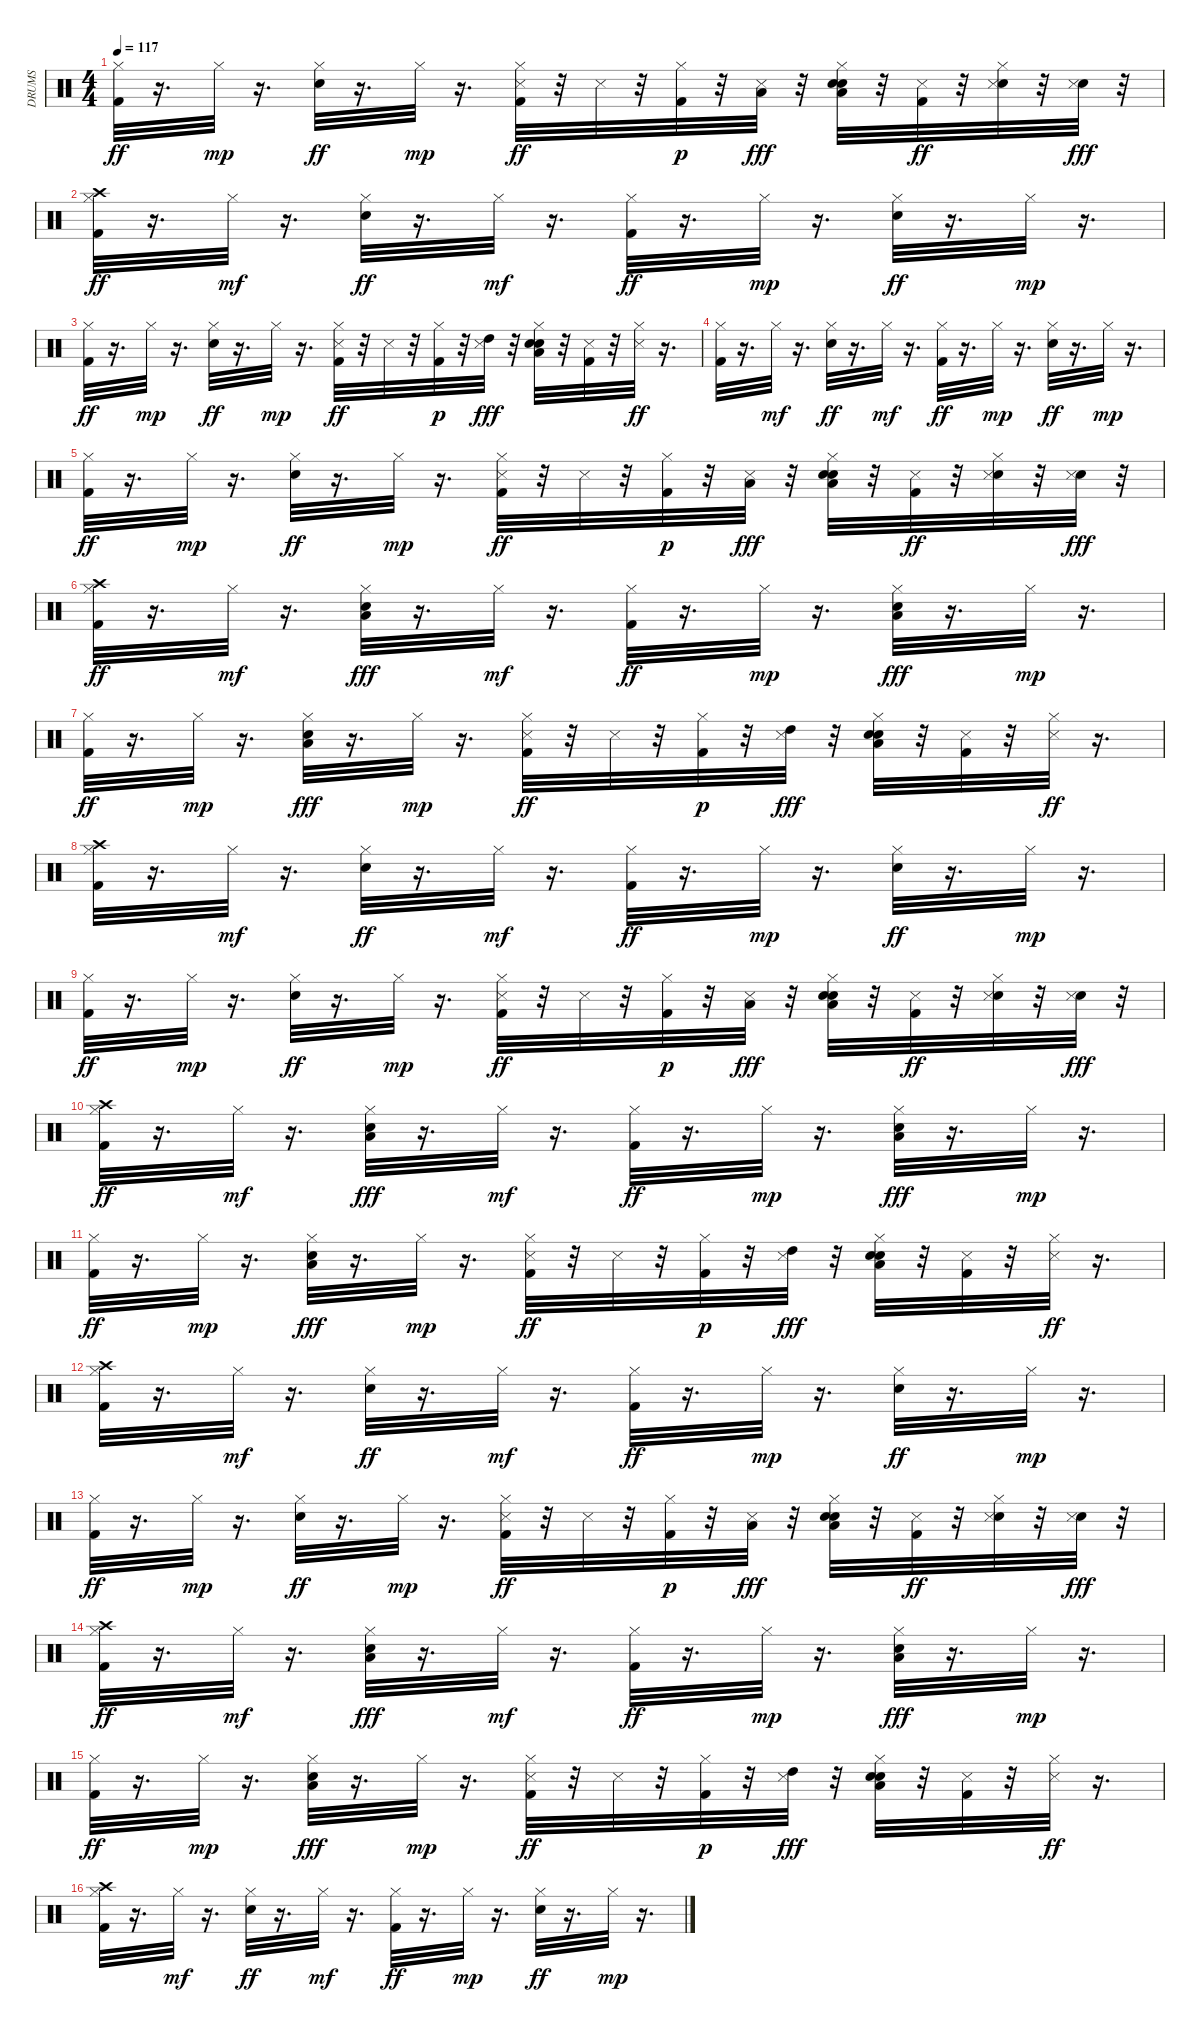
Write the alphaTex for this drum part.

\track ("DRUMS" "DRUMS") {instrument percussion}
\staff {score}
\articulation defaults
\ts (4 4)
\tempo 117
\clef neutral
\ks c
("Kick (hit) 2" "Hi-Hat (closed)").32{dy ff} r.16{d} "Hi-Hat (closed)".32{dy mp} r.16{d} ("Snare (hit) 2" "Hi-Hat (closed)").32{dy ff} r.16{d} "Hi-Hat (closed)".32{dy mp} r.16{d} ("Kick (hit) 2" "Hi-Hat (closed)" "Snare (side stick) 3").32{dy ff} r.32 "Snare (side stick) 3".32 r.32 ("Kick (hit) 2" "Hi-Hat (closed)").32{dy p} r.32 ("Low Tom (hit)" "Snare (side stick) 3").32{dy fff} r.32 ("Snare (hit) 2" "Hi-Hat (closed)" "Low Floor Tom (hit)" "Hand Clap (hit)").32 r.32 ("Kick (hit) 2" "Snare (side stick) 3").32{dy ff} r.32 ("Snare (hit) 2" "Hi-Hat (closed)" "Snare (side stick) 3").32 r.32 ("Snare (hit) 2" "Snare (side stick) 3").32{dy fff} r.32 |
("Crash high (hit)" "Kick (hit) 2" "Hi-Hat (closed)").32{dy ff} r.16{d} "Hi-Hat (closed)".32{dy mf} r.16{d} ("Snare (hit) 2" "Hi-Hat (closed)").32{dy ff} r.16{d} "Hi-Hat (closed)".32{dy mf} r.16{d} ("Kick (hit) 2" "Hi-Hat (closed)").32{dy ff} r.16{d} "Hi-Hat (closed)".32{dy mp} r.16{d} ("Snare (hit) 2" "Hi-Hat (closed)").32{dy ff} r.16{d} "Hi-Hat (closed)".32{dy mp} r.16{d} |
("Kick (hit) 2" "Hi-Hat (closed)").32{dy ff} r.16{d} "Hi-Hat (closed)".32{dy mp} r.16{d} ("Snare (hit) 2" "Hi-Hat (closed)").32{dy ff} r.16{d} "Hi-Hat (closed)".32{dy mp} r.16{d} ("Kick (hit) 2" "Hi-Hat (closed)" "Snare (side stick) 3").32{dy ff} r.32 "Snare (side stick) 3".32 r.32 ("Kick (hit) 2" "Hi-Hat (closed)").32{dy p} r.32 ("High Tom (hit)" "Snare (side stick) 3").32{dy fff} r.32 ("Snare (hit) 2" "Hi-Hat (closed)" "Low Tom (hit)" "Hand Clap (hit)").32 r.32 ("Kick (hit) 2" "Snare (side stick) 3").32 r.32 ("Hi-Hat (closed)" "Snare (side stick) 3").32{dy ff} r.16{d} |
("Kick (hit) 2" "Hi-Hat (closed)").32 r.16{d} "Hi-Hat (closed)".32{dy mf} r.16{d} ("Snare (hit) 2" "Hi-Hat (closed)").32{dy ff} r.16{d} "Hi-Hat (closed)".32{dy mf} r.16{d} ("Kick (hit) 2" "Hi-Hat (closed)").32{dy ff} r.16{d} "Hi-Hat (closed)".32{dy mp} r.16{d} ("Snare (hit) 2" "Hi-Hat (closed)").32{dy ff} r.16{d} "Hi-Hat (closed)".32{dy mp} r.16{d} |
("Kick (hit) 2" "Hi-Hat (closed)").32{dy ff} r.16{d} "Hi-Hat (closed)".32{dy mp} r.16{d} ("Snare (hit) 2" "Hi-Hat (closed)").32{dy ff} r.16{d} "Hi-Hat (closed)".32{dy mp} r.16{d} ("Kick (hit) 2" "Hi-Hat (closed)" "Snare (side stick) 3").32{dy ff} r.32 "Snare (side stick) 3".32 r.32 ("Kick (hit) 2" "Hi-Hat (closed)").32{dy p} r.32 ("Low Tom (hit)" "Snare (side stick) 3").32{dy fff} r.32 ("Snare (hit) 2" "Hi-Hat (closed)" "Low Floor Tom (hit)" "Hand Clap (hit)").32 r.32 ("Kick (hit) 2" "Snare (side stick) 3").32{dy ff} r.32 ("Snare (hit) 2" "Hi-Hat (closed)" "Snare (side stick) 3").32 r.32 ("Snare (hit) 2" "Snare (side stick) 3").32{dy fff} r.32 |
("Crash high (hit)" "Kick (hit) 2" "Hi-Hat (closed)").32{dy ff} r.16{d} "Hi-Hat (closed)".32{dy mf} r.16{d} ("Snare (hit) 2" "Hi-Hat (closed)" "Low Tom (hit)").32{dy fff} r.16{d} "Hi-Hat (closed)".32{dy mf} r.16{d} ("Kick (hit) 2" "Hi-Hat (closed)").32{dy ff} r.16{d} "Hi-Hat (closed)".32{dy mp} r.16{d} ("Snare (hit) 2" "Hi-Hat (closed)" "Low Tom (hit)").32{dy fff} r.16{d} "Hi-Hat (closed)".32{dy mp} r.16{d} |
("Kick (hit) 2" "Hi-Hat (closed)").32{dy ff} r.16{d} "Hi-Hat (closed)".32{dy mp} r.16{d} ("Snare (hit) 2" "Hi-Hat (closed)" "Low Tom (hit)").32{dy fff} r.16{d} "Hi-Hat (closed)".32{dy mp} r.16{d} ("Kick (hit) 2" "Hi-Hat (closed)" "Snare (side stick) 3").32{dy ff} r.32 "Snare (side stick) 3".32 r.32 ("Kick (hit) 2" "Hi-Hat (closed)").32{dy p} r.32 ("High Tom (hit)" "Snare (side stick) 3").32{dy fff} r.32 ("Snare (hit) 2" "Hi-Hat (closed)" "Low Tom (hit)" "Hand Clap (hit)").32 r.32 ("Kick (hit) 2" "Snare (side stick) 3").32 r.32 ("Hi-Hat (closed)" "Snare (side stick) 3").32{dy ff} r.16{d} |
("Kick (hit) 2" "Hi-Hat (closed)" "Crash high (hit)").32 r.16{d} "Hi-Hat (closed)".32{dy mf} r.16{d} ("Snare (hit) 2" "Hi-Hat (closed)").32{dy ff} r.16{d} "Hi-Hat (closed)".32{dy mf} r.16{d} ("Kick (hit) 2" "Hi-Hat (closed)").32{dy ff} r.16{d} "Hi-Hat (closed)".32{dy mp} r.16{d} ("Snare (hit) 2" "Hi-Hat (closed)").32{dy ff} r.16{d} "Hi-Hat (closed)".32{dy mp} r.16{d} |
("Kick (hit) 2" "Hi-Hat (closed)").32{dy ff} r.16{d} "Hi-Hat (closed)".32{dy mp} r.16{d} ("Snare (hit) 2" "Hi-Hat (closed)").32{dy ff} r.16{d} "Hi-Hat (closed)".32{dy mp} r.16{d} ("Kick (hit) 2" "Hi-Hat (closed)" "Snare (side stick) 3").32{dy ff} r.32 "Snare (side stick) 3".32 r.32 ("Kick (hit) 2" "Hi-Hat (closed)").32{dy p} r.32 ("Low Tom (hit)" "Snare (side stick) 3").32{dy fff} r.32 ("Snare (hit) 2" "Hi-Hat (closed)" "Low Floor Tom (hit)" "Hand Clap (hit)").32 r.32 ("Kick (hit) 2" "Snare (side stick) 3").32{dy ff} r.32 ("Snare (hit) 2" "Hi-Hat (closed)" "Snare (side stick) 3").32 r.32 ("Snare (hit) 2" "Snare (side stick) 3").32{dy fff} r.32 |
("Crash high (hit)" "Kick (hit) 2" "Hi-Hat (closed)").32{dy ff} r.16{d} "Hi-Hat (closed)".32{dy mf} r.16{d} ("Snare (hit) 2" "Hi-Hat (closed)" "Low Tom (hit)").32{dy fff} r.16{d} "Hi-Hat (closed)".32{dy mf} r.16{d} ("Kick (hit) 2" "Hi-Hat (closed)").32{dy ff} r.16{d} "Hi-Hat (closed)".32{dy mp} r.16{d} ("Snare (hit) 2" "Hi-Hat (closed)" "Low Tom (hit)").32{dy fff} r.16{d} "Hi-Hat (closed)".32{dy mp} r.16{d} |
("Kick (hit) 2" "Hi-Hat (closed)").32{dy ff} r.16{d} "Hi-Hat (closed)".32{dy mp} r.16{d} ("Snare (hit) 2" "Hi-Hat (closed)" "Low Tom (hit)").32{dy fff} r.16{d} "Hi-Hat (closed)".32{dy mp} r.16{d} ("Kick (hit) 2" "Hi-Hat (closed)" "Snare (side stick) 3").32{dy ff} r.32 "Snare (side stick) 3".32 r.32 ("Kick (hit) 2" "Hi-Hat (closed)").32{dy p} r.32 ("High Tom (hit)" "Snare (side stick) 3").32{dy fff} r.32 ("Snare (hit) 2" "Hi-Hat (closed)" "Low Tom (hit)" "Hand Clap (hit)").32 r.32 ("Kick (hit) 2" "Snare (side stick) 3").32 r.32 ("Hi-Hat (closed)" "Snare (side stick) 3").32{dy ff} r.16{d} |
("Kick (hit) 2" "Hi-Hat (closed)" "Crash high (hit)").32 r.16{d} "Hi-Hat (closed)".32{dy mf} r.16{d} ("Snare (hit) 2" "Hi-Hat (closed)").32{dy ff} r.16{d} "Hi-Hat (closed)".32{dy mf} r.16{d} ("Kick (hit) 2" "Hi-Hat (closed)").32{dy ff} r.16{d} "Hi-Hat (closed)".32{dy mp} r.16{d} ("Snare (hit) 2" "Hi-Hat (closed)").32{dy ff} r.16{d} "Hi-Hat (closed)".32{dy mp} r.16{d} |
("Kick (hit) 2" "Hi-Hat (closed)").32{dy ff} r.16{d} "Hi-Hat (closed)".32{dy mp} r.16{d} ("Snare (hit) 2" "Hi-Hat (closed)").32{dy ff} r.16{d} "Hi-Hat (closed)".32{dy mp} r.16{d} ("Kick (hit) 2" "Hi-Hat (closed)" "Snare (side stick) 3").32{dy ff} r.32 "Snare (side stick) 3".32 r.32 ("Kick (hit) 2" "Hi-Hat (closed)").32{dy p} r.32 ("Low Tom (hit)" "Snare (side stick) 3").32{dy fff} r.32 ("Snare (hit) 2" "Hi-Hat (closed)" "Low Floor Tom (hit)" "Hand Clap (hit)").32 r.32 ("Kick (hit) 2" "Snare (side stick) 3").32{dy ff} r.32 ("Snare (hit) 2" "Hi-Hat (closed)" "Snare (side stick) 3").32 r.32 ("Snare (hit) 2" "Snare (side stick) 3").32{dy fff} r.32 |
("Crash high (hit)" "Kick (hit) 2" "Hi-Hat (closed)").32{dy ff} r.16{d} "Hi-Hat (closed)".32{dy mf} r.16{d} ("Snare (hit) 2" "Hi-Hat (closed)" "Low Tom (hit)").32{dy fff} r.16{d} "Hi-Hat (closed)".32{dy mf} r.16{d} ("Kick (hit) 2" "Hi-Hat (closed)").32{dy ff} r.16{d} "Hi-Hat (closed)".32{dy mp} r.16{d} ("Snare (hit) 2" "Hi-Hat (closed)" "Low Tom (hit)").32{dy fff} r.16{d} "Hi-Hat (closed)".32{dy mp} r.16{d} |
("Kick (hit) 2" "Hi-Hat (closed)").32{dy ff} r.16{d} "Hi-Hat (closed)".32{dy mp} r.16{d} ("Snare (hit) 2" "Hi-Hat (closed)" "Low Tom (hit)").32{dy fff} r.16{d} "Hi-Hat (closed)".32{dy mp} r.16{d} ("Kick (hit) 2" "Hi-Hat (closed)" "Snare (side stick) 3").32{dy ff} r.32 "Snare (side stick) 3".32 r.32 ("Kick (hit) 2" "Hi-Hat (closed)").32{dy p} r.32 ("High Tom (hit)" "Snare (side stick) 3").32{dy fff} r.32 ("Snare (hit) 2" "Hi-Hat (closed)" "Low Tom (hit)" "Hand Clap (hit)").32 r.32 ("Kick (hit) 2" "Snare (side stick) 3").32 r.32 ("Hi-Hat (closed)" "Snare (side stick) 3").32{dy ff} r.16{d} |
("Kick (hit) 2" "Hi-Hat (closed)" "Crash high (hit)").32 r.16{d} "Hi-Hat (closed)".32{dy mf} r.16{d} ("Snare (hit) 2" "Hi-Hat (closed)").32{dy ff} r.16{d} "Hi-Hat (closed)".32{dy mf} r.16{d} ("Kick (hit) 2" "Hi-Hat (closed)").32{dy ff} r.16{d} "Hi-Hat (closed)".32{dy mp} r.16{d} ("Snare (hit) 2" "Hi-Hat (closed)").32{dy ff} r.16{d} "Hi-Hat (closed)".32{dy mp} r.16{d}
